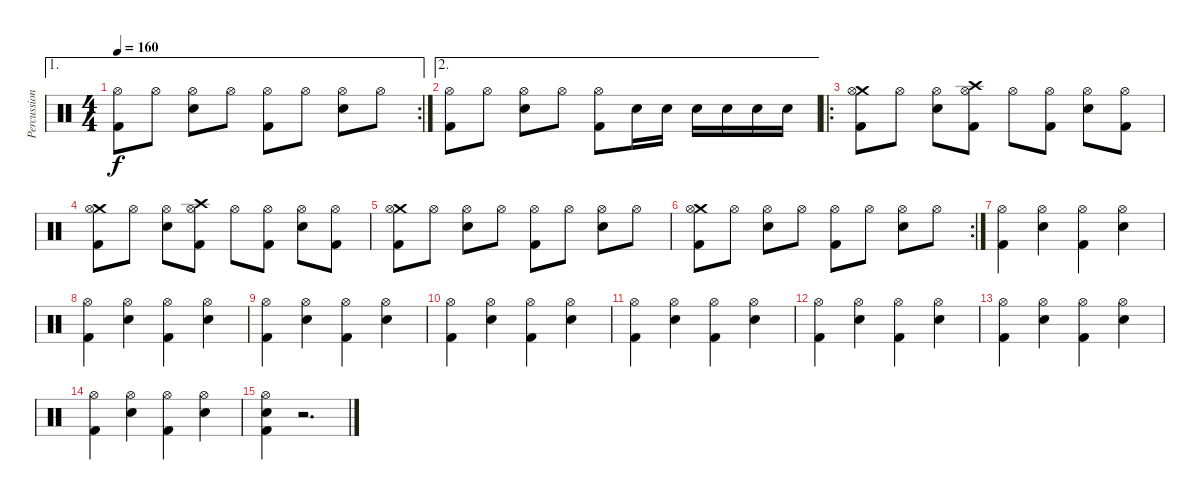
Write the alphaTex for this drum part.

\track ("Percussions" "Percussion") {instrument percussion}
\staff {score}
\articulation defaults
\ae 1
\rc 2
\ts (4 4)
\tempo 160
\clef neutral
\ks c
("Hi-Hat (open)" "Kick (hit) 2").8{dy f} "Hi-Hat (open)".8 ("Hi-Hat (open)" "Snare (hit) 2").8 "Hi-Hat (open)".8 ("Hi-Hat (open)" "Kick (hit) 2").8 "Hi-Hat (open)".8 ("Hi-Hat (open)" "Snare (hit) 2").8 "Hi-Hat (open)".8 |
\ae 2
("Hi-Hat (open)" "Kick (hit) 2").8 "Hi-Hat (open)".8 ("Hi-Hat (open)" "Snare (hit) 2").8 "Hi-Hat (open)".8 ("Hi-Hat (open)" "Kick (hit) 2").8 "Snare (hit) 2".16 "Snare (hit) 2".16 "Snare (hit) 2".16 "Snare (hit) 2".16 "Snare (hit) 2".16 "Snare (hit) 2".16 |
\ro
("Crash medium (hit)" "Hi-Hat (open)" "Kick (hit) 2").8 "Hi-Hat (open)".8 ("Hi-Hat (open)" "Snare (hit) 2").8 ("Crash high (hit)" "Hi-Hat (open)" "Kick (hit) 2").8 "Hi-Hat (open)".8 ("Hi-Hat (open)" "Kick (hit) 2").8 ("Hi-Hat (open)" "Snare (hit) 2").8 ("Hi-Hat (open)" "Kick (hit) 2").8 |
("Crash medium (hit)" "Hi-Hat (open)" "Kick (hit) 2").8 "Hi-Hat (open)".8 ("Hi-Hat (open)" "Snare (hit) 2").8 ("Crash high (hit)" "Hi-Hat (open)" "Kick (hit) 2").8 "Hi-Hat (open)".8 ("Hi-Hat (open)" "Kick (hit) 2").8 ("Hi-Hat (open)" "Snare (hit) 2").8 ("Hi-Hat (open)" "Kick (hit) 2").8 |
("Crash medium (hit)" "Hi-Hat (open)" "Kick (hit) 2").8 "Hi-Hat (open)".8 ("Hi-Hat (open)" "Snare (hit) 2").8 "Hi-Hat (open)".8 ("Hi-Hat (open)" "Kick (hit) 2").8 "Hi-Hat (open)".8 ("Hi-Hat (open)" "Snare (hit) 2").8 "Hi-Hat (open)".8 |
\rc 2
("Crash medium (hit)" "Hi-Hat (open)" "Kick (hit) 2").8 "Hi-Hat (open)".8 ("Hi-Hat (open)" "Snare (hit) 2").8 "Hi-Hat (open)".8 ("Hi-Hat (open)" "Kick (hit) 2").8 "Hi-Hat (open)".8 ("Hi-Hat (open)" "Snare (hit) 2").8 "Hi-Hat (open)".8 |
("Hi-Hat (open)" "Kick (hit) 2").4 ("Hi-Hat (open)" "Snare (hit) 2").4 ("Hi-Hat (open)" "Kick (hit) 2").4 ("Hi-Hat (open)" "Snare (hit) 2").4 |
("Hi-Hat (open)" "Kick (hit) 2").4 ("Hi-Hat (open)" "Snare (hit) 2").4 ("Hi-Hat (open)" "Kick (hit) 2").4 ("Hi-Hat (open)" "Snare (hit) 2").4 |
("Hi-Hat (open)" "Kick (hit) 2").4 ("Hi-Hat (open)" "Snare (hit) 2").4 ("Hi-Hat (open)" "Kick (hit) 2").4 ("Hi-Hat (open)" "Snare (hit) 2").4 |
("Hi-Hat (open)" "Kick (hit) 2").4 ("Hi-Hat (open)" "Snare (hit) 2").4 ("Hi-Hat (open)" "Kick (hit) 2").4 ("Hi-Hat (open)" "Snare (hit) 2").4 |
("Hi-Hat (open)" "Kick (hit) 2").4 ("Hi-Hat (open)" "Snare (hit) 2").4 ("Hi-Hat (open)" "Kick (hit) 2").4 ("Hi-Hat (open)" "Snare (hit) 2").4 |
("Hi-Hat (open)" "Kick (hit) 2").4 ("Hi-Hat (open)" "Snare (hit) 2").4 ("Hi-Hat (open)" "Kick (hit) 2").4 ("Hi-Hat (open)" "Snare (hit) 2").4 |
("Hi-Hat (open)" "Kick (hit) 2").4 ("Hi-Hat (open)" "Snare (hit) 2").4 ("Hi-Hat (open)" "Kick (hit) 2").4 ("Hi-Hat (open)" "Snare (hit) 2").4 |
("Hi-Hat (open)" "Kick (hit) 2").4 ("Hi-Hat (open)" "Snare (hit) 2").4 ("Hi-Hat (open)" "Kick (hit) 2").4 ("Hi-Hat (open)" "Snare (hit) 2").4 |
("Hi-Hat (open)" "Snare (hit) 2" "Kick (hit) 2").4 r.2{d}
